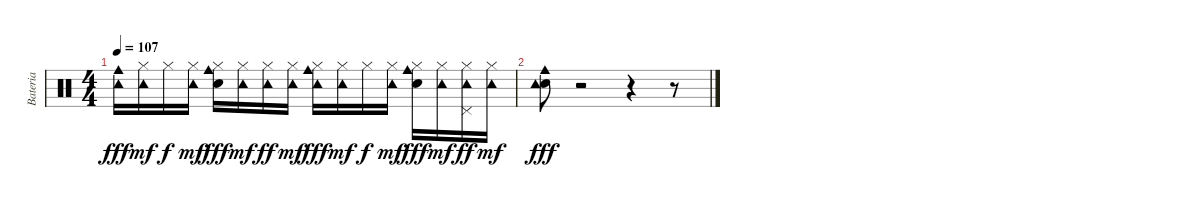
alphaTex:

\track ("Bateria" "Bateria") {instrument percussion}
\staff {score}
\articulation defaults
\ts (4 4)
\tempo 107
\clef neutral
\ks c
("Cowbell medium (hit)" "Tambourine (hit)").16{dy fff} ("Tambourine (hit)" "Hi-Hat (closed)").16{dy mf} "Hi-Hat (closed)".16{dy f} ("Tambourine (hit)" "Hi-Hat (closed)").16{dy mf} ("Hand Clap (hit)" "Cowbell medium (hit)" "Hi-Hat (closed)").16{dy fff} ("Tambourine (hit)" "Hi-Hat (closed)").16{dy mf} ("Tambourine (hit)" "Hi-Hat (closed)").16{dy ff} ("Tambourine (hit)" "Hi-Hat (closed)").16{dy mf} ("Cowbell medium (hit)" "Tambourine (hit)" "Hi-Hat (closed)").16{dy fff} ("Tambourine (hit)" "Hi-Hat (closed)").16{dy mf} "Hi-Hat (closed)".16{dy f} ("Tambourine (hit)" "Hi-Hat (closed)").16{dy mf} ("Hand Clap (hit)" "Cowbell medium (hit)" "Hi-Hat (closed)").16{dy fff} ("Tambourine (hit)" "Hi-Hat (closed)").16{dy mf} ("Tambourine (hit)" "Pedal Hi-Hat (hit)" "Hi-Hat (closed)").16{dy ff} ("Tambourine (hit)" "Hi-Hat (closed)").16{dy mf} |
("Hand Clap (hit)" "Cowbell medium (hit)" "Tambourine (hit)").8{dy fff} r.2 r.4 r.8
